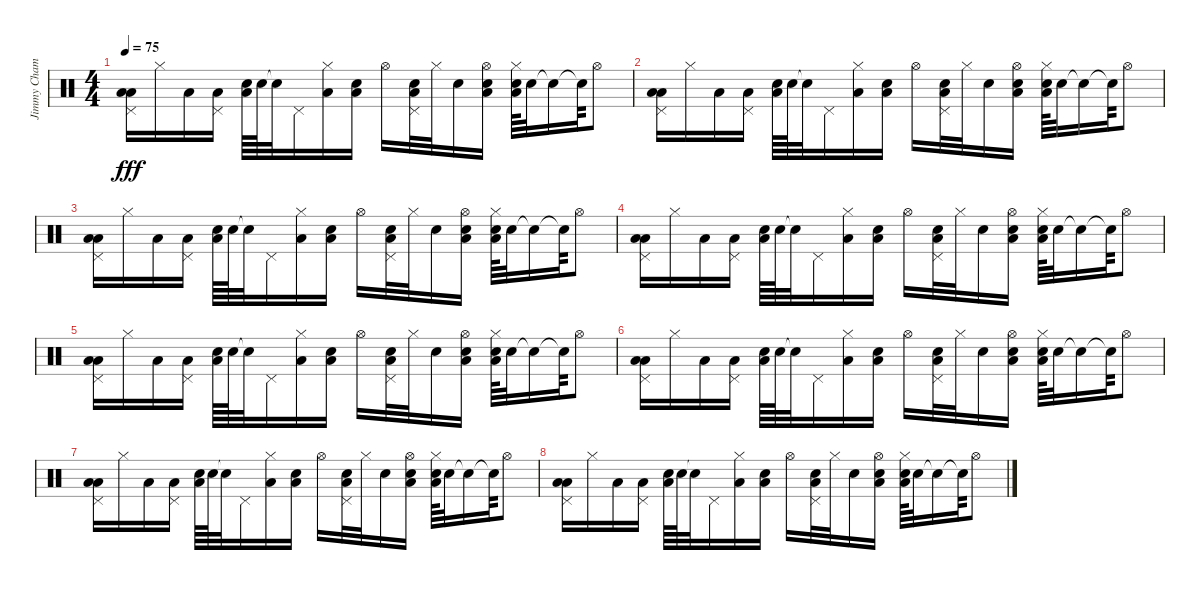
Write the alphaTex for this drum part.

\track ("Jimmy Chamberlin" "Jimmy Cham") {instrument percussion}
\staff {score}
\articulation defaults
\ts (4 4)
\tempo 75
\clef neutral
\ks c
("Low Floor Tom (hit)" "Low Tom (hit)" "Pedal Hi-Hat (hit)").16{dy fff} "Hi-Hat (closed)".16 "Low Floor Tom (hit)".16 ("Low Floor Tom (hit)" "Pedal Hi-Hat (hit)").16 ("Low Floor Tom (hit)" "Electric Snare (hit)").64 "Electric Snare (hit)".64 "Snare (hit)"{t}.32 "Pedal Hi-Hat (hit)".16 ("Low Floor Tom (hit)" "Hi-Hat (closed)").16 ("Low Floor Tom (hit)" "Electric Snare (hit)").16 "Hi-Hat (open)".16 ("Low Floor Tom (hit)" "Pedal Hi-Hat (hit)" "Electric Snare (hit)").32 "Hi-Hat (closed)".32 "Electric Snare (hit)".16 ("Low Floor Tom (hit)" "Hi-Hat (open)" "Snare (hit) 2").16 ("Low Floor Tom (hit)" "Hi-Hat (closed)" "Electric Snare (hit)").64 "Electric Snare (hit)".32 "Snare (hit)"{t}.16 "Snare (hit)"{t}.64 "Hi-Hat (open)".8 |
("Low Floor Tom (hit)" "Low Tom (hit)" "Pedal Hi-Hat (hit)").16 "Hi-Hat (closed)".16 "Low Floor Tom (hit)".16 ("Low Floor Tom (hit)" "Pedal Hi-Hat (hit)").16 ("Low Floor Tom (hit)" "Electric Snare (hit)").64 "Electric Snare (hit)".64 "Snare (hit)"{t}.32 "Pedal Hi-Hat (hit)".16 ("Low Floor Tom (hit)" "Hi-Hat (closed)").16 ("Low Floor Tom (hit)" "Electric Snare (hit)").16 "Hi-Hat (open)".16 ("Low Floor Tom (hit)" "Pedal Hi-Hat (hit)" "Electric Snare (hit)").32 "Hi-Hat (closed)".32 "Electric Snare (hit)".16 ("Low Floor Tom (hit)" "Hi-Hat (open)" "Snare (hit) 2").16 ("Low Floor Tom (hit)" "Hi-Hat (closed)" "Electric Snare (hit)").64 "Electric Snare (hit)".32 "Snare (hit)"{t}.16 "Snare (hit)"{t}.64 "Hi-Hat (open)".8 |
("Low Floor Tom (hit)" "Low Tom (hit)" "Pedal Hi-Hat (hit)").16 "Hi-Hat (closed)".16 "Low Floor Tom (hit)".16 ("Low Floor Tom (hit)" "Pedal Hi-Hat (hit)").16 ("Low Floor Tom (hit)" "Electric Snare (hit)").64 "Electric Snare (hit)".64 "Snare (hit)"{t}.32 "Pedal Hi-Hat (hit)".16 ("Low Floor Tom (hit)" "Hi-Hat (closed)").16 ("Low Floor Tom (hit)" "Electric Snare (hit)").16 "Hi-Hat (open)".16 ("Low Floor Tom (hit)" "Pedal Hi-Hat (hit)" "Electric Snare (hit)").32 "Hi-Hat (closed)".32 "Electric Snare (hit)".16 ("Low Floor Tom (hit)" "Hi-Hat (open)" "Snare (hit) 2").16 ("Low Floor Tom (hit)" "Hi-Hat (closed)" "Electric Snare (hit)").64 "Electric Snare (hit)".32 "Snare (hit)"{t}.16 "Snare (hit)"{t}.64 "Hi-Hat (open)".8 |
("Low Floor Tom (hit)" "Low Tom (hit)" "Pedal Hi-Hat (hit)").16 "Hi-Hat (closed)".16 "Low Floor Tom (hit)".16 ("Low Floor Tom (hit)" "Pedal Hi-Hat (hit)").16 ("Low Floor Tom (hit)" "Electric Snare (hit)").64 "Electric Snare (hit)".64 "Snare (hit)"{t}.32 "Pedal Hi-Hat (hit)".16 ("Low Floor Tom (hit)" "Hi-Hat (closed)").16 ("Low Floor Tom (hit)" "Electric Snare (hit)").16 "Hi-Hat (open)".16 ("Low Floor Tom (hit)" "Pedal Hi-Hat (hit)" "Electric Snare (hit)").32 "Hi-Hat (closed)".32 "Electric Snare (hit)".16 ("Low Floor Tom (hit)" "Hi-Hat (open)" "Snare (hit) 2").16 ("Low Floor Tom (hit)" "Hi-Hat (closed)" "Electric Snare (hit)").64 "Electric Snare (hit)".32 "Snare (hit)"{t}.16 "Snare (hit)"{t}.64 "Hi-Hat (open)".8 |
("Low Floor Tom (hit)" "Low Tom (hit)" "Pedal Hi-Hat (hit)").16 "Hi-Hat (closed)".16 "Low Floor Tom (hit)".16 ("Low Floor Tom (hit)" "Pedal Hi-Hat (hit)").16 ("Low Floor Tom (hit)" "Electric Snare (hit)").64 "Electric Snare (hit)".64 "Snare (hit)"{t}.32 "Pedal Hi-Hat (hit)".16 ("Low Floor Tom (hit)" "Hi-Hat (closed)").16 ("Low Floor Tom (hit)" "Electric Snare (hit)").16 "Hi-Hat (open)".16 ("Low Floor Tom (hit)" "Pedal Hi-Hat (hit)" "Electric Snare (hit)").32 "Hi-Hat (closed)".32 "Electric Snare (hit)".16 ("Low Floor Tom (hit)" "Hi-Hat (open)" "Snare (hit) 2").16 ("Low Floor Tom (hit)" "Hi-Hat (closed)" "Electric Snare (hit)").64 "Electric Snare (hit)".32 "Snare (hit)"{t}.16 "Snare (hit)"{t}.64 "Hi-Hat (open)".8 |
("Low Floor Tom (hit)" "Low Tom (hit)" "Pedal Hi-Hat (hit)").16 "Hi-Hat (closed)".16 "Low Floor Tom (hit)".16 ("Low Floor Tom (hit)" "Pedal Hi-Hat (hit)").16 ("Low Floor Tom (hit)" "Electric Snare (hit)").64 "Electric Snare (hit)".64 "Snare (hit)"{t}.32 "Pedal Hi-Hat (hit)".16 ("Low Floor Tom (hit)" "Hi-Hat (closed)").16 ("Low Floor Tom (hit)" "Electric Snare (hit)").16 "Hi-Hat (open)".16 ("Low Floor Tom (hit)" "Pedal Hi-Hat (hit)" "Electric Snare (hit)").32 "Hi-Hat (closed)".32 "Electric Snare (hit)".16 ("Low Floor Tom (hit)" "Hi-Hat (open)" "Snare (hit) 2").16 ("Low Floor Tom (hit)" "Hi-Hat (closed)" "Electric Snare (hit)").64 "Electric Snare (hit)".32 "Snare (hit)"{t}.16 "Snare (hit)"{t}.64 "Hi-Hat (open)".8 |
("Low Floor Tom (hit)" "Low Tom (hit)" "Pedal Hi-Hat (hit)").16 "Hi-Hat (closed)".16 "Low Floor Tom (hit)".16 ("Low Floor Tom (hit)" "Pedal Hi-Hat (hit)").16 ("Low Floor Tom (hit)" "Electric Snare (hit)").64 "Electric Snare (hit)".64 "Snare (hit)"{t}.32 "Pedal Hi-Hat (hit)".16 ("Low Floor Tom (hit)" "Hi-Hat (closed)").16 ("Low Floor Tom (hit)" "Electric Snare (hit)").16 "Hi-Hat (open)".16 ("Low Floor Tom (hit)" "Pedal Hi-Hat (hit)" "Electric Snare (hit)").32 "Hi-Hat (closed)".32 "Electric Snare (hit)".16 ("Low Floor Tom (hit)" "Hi-Hat (open)" "Snare (hit) 2").16 ("Low Floor Tom (hit)" "Hi-Hat (closed)" "Electric Snare (hit)").64 "Electric Snare (hit)".32 "Snare (hit)"{t}.16 "Snare (hit)"{t}.64 "Hi-Hat (open)".8 |
("Low Floor Tom (hit)" "Low Tom (hit)" "Pedal Hi-Hat (hit)").16 "Hi-Hat (closed)".16 "Low Floor Tom (hit)".16 ("Low Floor Tom (hit)" "Pedal Hi-Hat (hit)").16 ("Low Floor Tom (hit)" "Electric Snare (hit)").64 "Electric Snare (hit)".64 "Snare (hit)"{t}.32 "Pedal Hi-Hat (hit)".16 ("Low Floor Tom (hit)" "Hi-Hat (closed)").16 ("Low Floor Tom (hit)" "Electric Snare (hit)").16 "Hi-Hat (open)".16 ("Low Floor Tom (hit)" "Pedal Hi-Hat (hit)" "Electric Snare (hit)").32 "Hi-Hat (closed)".32 "Electric Snare (hit)".16 ("Low Floor Tom (hit)" "Hi-Hat (open)" "Snare (hit) 2").16 ("Low Floor Tom (hit)" "Hi-Hat (closed)" "Electric Snare (hit)").64 "Electric Snare (hit)".32 "Snare (hit)"{t}.16 "Snare (hit)"{t}.64 "Hi-Hat (open)".8
